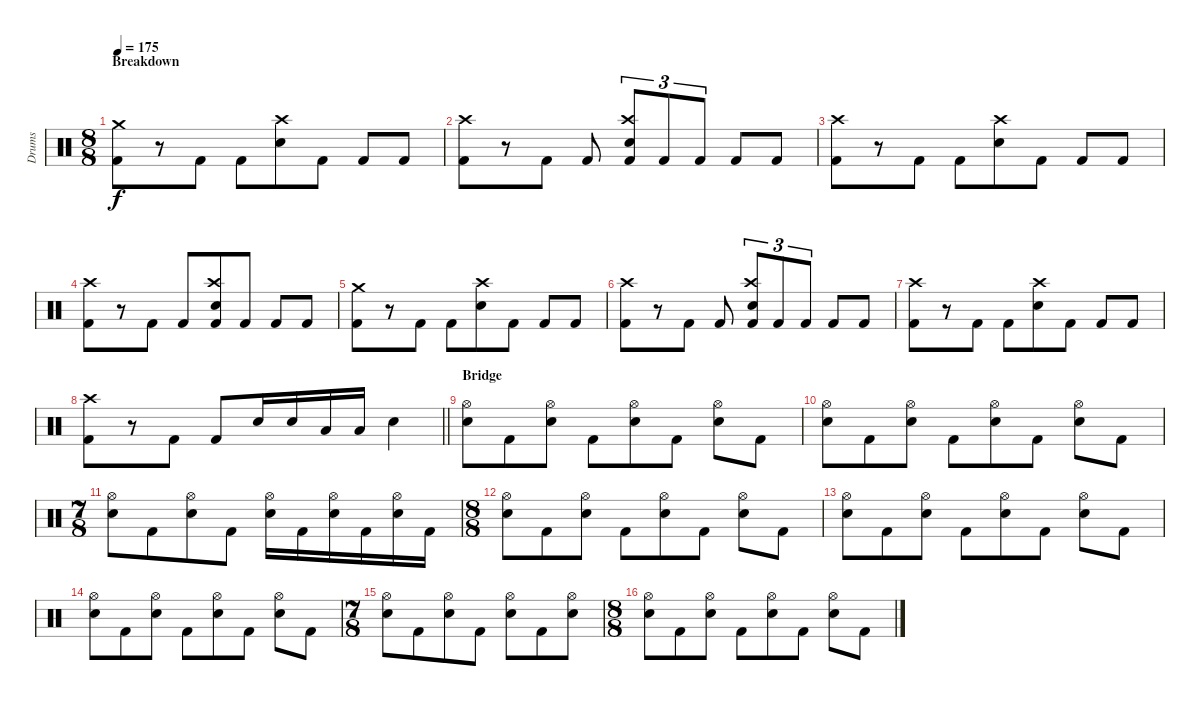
\track ("Drums" "Drums") {instrument percussion}
\staff {score}
\articulation defaults
\ts (8 8)
\section ("" "Breakdown")
\tempo 175
\clef neutral
\ks c
("Crash medium (hit)" "Kick (hit) 2").8{dy f} r.8 "Kick (hit) 2".8 "Kick (hit) 2".8 ("Crash high (hit)" "Electric Snare (hit)").8 "Kick (hit) 2".8 "Kick (hit) 2".8 "Kick (hit) 2".8 |
("Crash high (hit)" "Kick (hit) 2").8 r.8 "Kick (hit) 2".8 "Kick (hit) 2".8 ("Crash high (hit)" "Electric Snare (hit)" "Kick (hit) 2").8{tu (3 2)} "Kick (hit) 2".8{tu (3 2)} "Kick (hit) 2".8{tu (3 2)} "Kick (hit) 2".8 "Kick (hit) 2".8 |
("Crash high (hit)" "Kick (hit) 2").8 r.8 "Kick (hit) 2".8 "Kick (hit) 2".8 ("Crash high (hit)" "Electric Snare (hit)").8 "Kick (hit) 2".8 "Kick (hit) 2".8 "Kick (hit) 2".8 |
("Crash high (hit)" "Kick (hit) 2").8 r.8 "Kick (hit) 2".8 "Kick (hit) 2".8 ("Crash high (hit)" "Electric Snare (hit)" "Kick (hit) 2").8 "Kick (hit) 2".8 "Kick (hit) 2".8 "Kick (hit) 2".8 |
("Crash medium (hit)" "Kick (hit) 2").8 r.8 "Kick (hit) 2".8 "Kick (hit) 2".8 ("Crash high (hit)" "Electric Snare (hit)").8 "Kick (hit) 2".8 "Kick (hit) 2".8 "Kick (hit) 2".8 |
("Crash high (hit)" "Kick (hit) 2").8 r.8 "Kick (hit) 2".8 "Kick (hit) 2".8 ("Crash high (hit)" "Electric Snare (hit)" "Kick (hit) 2").8{tu (3 2)} "Kick (hit) 2".8{tu (3 2)} "Kick (hit) 2".8{tu (3 2)} "Kick (hit) 2".8 "Kick (hit) 2".8 |
("Crash high (hit)" "Kick (hit) 2").8 r.8 "Kick (hit) 2".8 "Kick (hit) 2".8 ("Crash high (hit)" "Electric Snare (hit)").8 "Kick (hit) 2".8 "Kick (hit) 2".8 "Kick (hit) 2".8 |
\barLineRight lightlight
("Crash high (hit)" "Kick (hit) 2").8 r.8 "Kick (hit) 2".8 "Kick (hit) 2".8 "Electric Snare (hit)".16 "Electric Snare (hit)".16 "Low Tom (hit)".16 "Low Tom (hit)".16 "Electric Snare (hit)".4 |
\section ("" "Bridge")
("Hi-Hat (open)" "Electric Snare (hit)").8 "Kick (hit) 2".8 ("Hi-Hat (open)" "Electric Snare (hit)").8 "Kick (hit) 2".8 ("Hi-Hat (open)" "Electric Snare (hit)").8 "Kick (hit) 2".8 ("Hi-Hat (open)" "Electric Snare (hit)").8 "Kick (hit) 2".8 |
("Hi-Hat (open)" "Electric Snare (hit)").8 "Kick (hit) 2".8 ("Hi-Hat (open)" "Electric Snare (hit)").8 "Kick (hit) 2".8 ("Hi-Hat (open)" "Electric Snare (hit)").8 "Kick (hit) 2".8 ("Hi-Hat (open)" "Electric Snare (hit)").8 "Kick (hit) 2".8 |
\ts (7 8)
("Hi-Hat (open)" "Electric Snare (hit)").8 "Kick (hit) 2".8 ("Hi-Hat (open)" "Electric Snare (hit)").8 "Kick (hit) 2".8 ("Hi-Hat (open)" "Electric Snare (hit)").16 "Kick (hit) 2".16 ("Hi-Hat (open)" "Electric Snare (hit)").16 "Kick (hit) 2".16 ("Hi-Hat (open)" "Electric Snare (hit)").16 "Kick (hit) 2".16 |
\ts (8 8)
("Hi-Hat (open)" "Electric Snare (hit)").8 "Kick (hit) 2".8 ("Hi-Hat (open)" "Electric Snare (hit)").8 "Kick (hit) 2".8 ("Hi-Hat (open)" "Electric Snare (hit)").8 "Kick (hit) 2".8 ("Hi-Hat (open)" "Electric Snare (hit)").8 "Kick (hit) 2".8 |
("Hi-Hat (open)" "Electric Snare (hit)").8 "Kick (hit) 2".8 ("Hi-Hat (open)" "Electric Snare (hit)").8 "Kick (hit) 2".8 ("Hi-Hat (open)" "Electric Snare (hit)").8 "Kick (hit) 2".8 ("Hi-Hat (open)" "Electric Snare (hit)").8 "Kick (hit) 2".8 |
("Hi-Hat (open)" "Electric Snare (hit)").8 "Kick (hit) 2".8 ("Hi-Hat (open)" "Electric Snare (hit)").8 "Kick (hit) 2".8 ("Hi-Hat (open)" "Electric Snare (hit)").8 "Kick (hit) 2".8 ("Hi-Hat (open)" "Electric Snare (hit)").8 "Kick (hit) 2".8 |
\ts (7 8)
("Hi-Hat (open)" "Electric Snare (hit)").8 "Kick (hit) 2".8 ("Hi-Hat (open)" "Electric Snare (hit)").8 "Kick (hit) 2".8 ("Hi-Hat (open)" "Electric Snare (hit)").8 "Kick (hit) 2".8 ("Hi-Hat (open)" "Electric Snare (hit)").8 |
\ts (8 8)
("Hi-Hat (open)" "Electric Snare (hit)").8 "Kick (hit) 2".8 ("Hi-Hat (open)" "Electric Snare (hit)").8 "Kick (hit) 2".8 ("Hi-Hat (open)" "Electric Snare (hit)").8 "Kick (hit) 2".8 ("Hi-Hat (open)" "Electric Snare (hit)").8 "Kick (hit) 2".8
